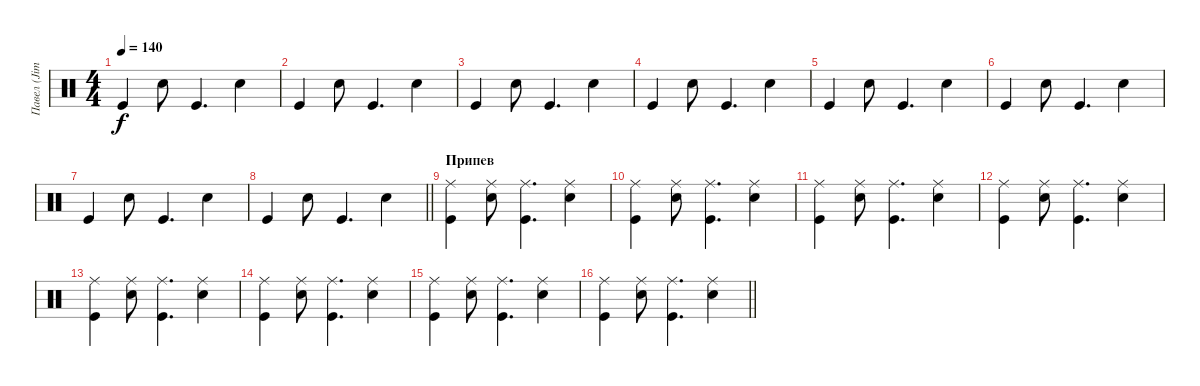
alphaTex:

\track ("Павел (Jimmy) Лохнин" "Павел (Jim") {instrument percussion}
\staff {score}
\articulation defaults
\ts (4 4)
\tempo 140
\clef neutral
\ks c "Kick (hit)".4{dy f} "Snare (hit) 2".8 "Kick (hit)".4{d} "Snare (hit) 2".4
|
"Kick (hit)".4 "Snare (hit) 2".8 "Kick (hit)".4{d} "Snare (hit) 2".4 |
"Kick (hit)".4 "Snare (hit) 2".8 "Kick (hit)".4{d} "Snare (hit) 2".4 |
"Kick (hit)".4 "Snare (hit) 2".8 "Kick (hit)".4{d} "Snare (hit) 2".4 |
"Kick (hit)".4 "Snare (hit) 2".8 "Kick (hit)".4{d} "Snare (hit) 2".4 |
"Kick (hit)".4 "Snare (hit) 2".8 "Kick (hit)".4{d} "Snare (hit) 2".4 |
"Kick (hit)".4 "Snare (hit) 2".8 "Kick (hit)".4{d} "Snare (hit) 2".4 |
\barLineRight lightlight "Kick (hit)".4 "Snare (hit) 2".8 "Kick (hit)".4{d} "Snare (hit) 2".4
|
\section ("" "Припев")
("Ride (middle)" "Kick (hit)").4 ("Ride (middle)" "Snare (hit) 2").8 ("Ride (middle)" "Kick (hit)").4{d} ("Ride (middle)" "Snare (hit) 2").4 |
("Ride (middle)" "Kick (hit)").4 ("Ride (middle)" "Snare (hit) 2").8 ("Ride (middle)" "Kick (hit)").4{d} ("Ride (middle)" "Snare (hit) 2").4 |
("Ride (middle)" "Kick (hit)").4 ("Ride (middle)" "Snare (hit) 2").8 ("Ride (middle)" "Kick (hit)").4{d} ("Ride (middle)" "Snare (hit) 2").4 |
("Ride (middle)" "Kick (hit)").4 ("Ride (middle)" "Snare (hit) 2").8 ("Ride (middle)" "Kick (hit)").4{d} ("Ride (middle)" "Snare (hit) 2").4 |
("Ride (middle)" "Kick (hit)").4 ("Ride (middle)" "Snare (hit) 2").8 ("Ride (middle)" "Kick (hit)").4{d} ("Ride (middle)" "Snare (hit) 2").4 |
("Ride (middle)" "Kick (hit)").4 ("Ride (middle)" "Snare (hit) 2").8 ("Ride (middle)" "Kick (hit)").4{d} ("Ride (middle)" "Snare (hit) 2").4 |
("Ride (middle)" "Kick (hit)").4 ("Ride (middle)" "Snare (hit) 2").8 ("Ride (middle)" "Kick (hit)").4{d} ("Ride (middle)" "Snare (hit) 2").4 |
\barLineRight lightlight
("Ride (middle)" "Kick (hit)").4 ("Ride (middle)" "Snare (hit) 2").8 ("Ride (middle)" "Kick (hit)").4{d} ("Ride (middle)" "Snare (hit) 2").4
